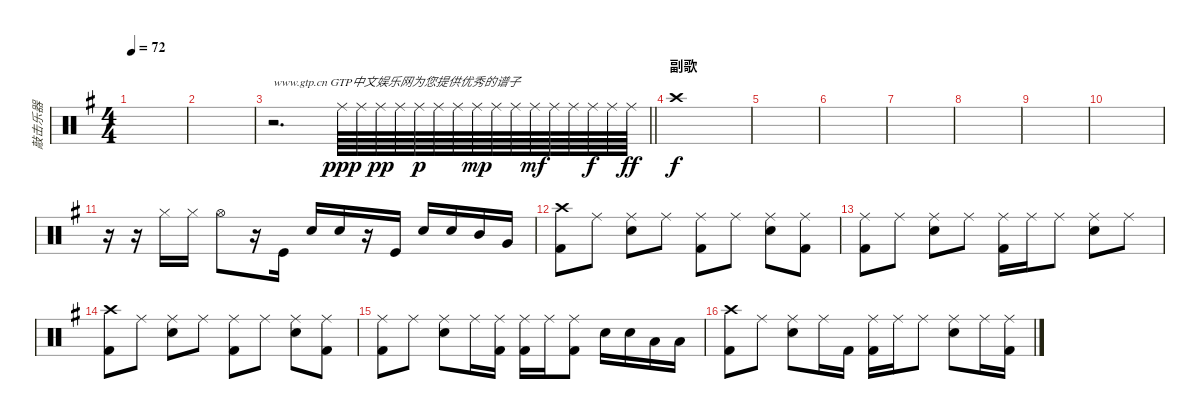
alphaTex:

\track ("敲击乐器" "敲击乐器") {instrument percussion}
\staff {score}
\articulation defaults
\ts (4 4)
\tempo 72
\clef neutral
\ks g
|
|
\barLineRight lightlight
r.2{d txt "www.gtp.cn GTP中文娱乐网为您提供优秀的谱子"} "Ride (middle)".64{dy ppp} "Ride (middle)".64 "Ride (middle)".64{dy pp} "Ride (middle)".64 "Ride (middle)".64{dy p} "Ride (middle)".64 "Ride (middle)".64 "Ride (middle)".64{dy mp} "Ride (middle)".64 "Ride (middle)".64 "Ride (middle)".64{dy mf} "Ride (middle)".64 "Ride (middle)".64 "Ride (middle)".64{dy f} "Ride (middle)".64 "Ride (middle)".64{dy ff} |
\section ("" "副歌")
"Crash high (hit)".1{dy f} |
|
|
|
|
|
|
r.16 r.16 "Hi-Hat (closed)".16 "Hi-Hat (closed)".16 "Hi-Hat (open)".8 r.16 "Kick (hit)".16 "Snare (hit) 2".16 "Snare (hit) 2".16 r.16 "Kick (hit)".16 "Snare (hit) 2".16 "Snare (hit) 2".16 "Mid Tom (hit)".16 "Very Low Tom (hit)".16 |
("Crash high (hit)" "Kick (hit) 2").8 "Ride (middle)".8 ("Ride (middle)" "Snare (hit) 2").8 "Ride (middle)".8 ("Ride (middle)" "Kick (hit) 2").8 "Ride (middle)".8 ("Ride (middle)" "Snare (hit) 2").8 ("Ride (middle)" "Kick (hit) 2").8 |
("Ride (middle)" "Kick (hit) 2").8 "Ride (middle)".8 ("Ride (middle)" "Snare (hit) 2").8 "Ride (middle)".8 ("Ride (middle)" "Kick (hit) 2").16 "Ride (middle)".16 "Ride (middle)".8 ("Ride (middle)" "Snare (hit) 2").8 "Ride (middle)".8 |
("Crash high (hit)" "Kick (hit) 2").8 "Ride (middle)".8 ("Ride (middle)" "Snare (hit) 2").8 "Ride (middle)".8 ("Ride (middle)" "Kick (hit) 2").8 "Ride (middle)".8 ("Ride (middle)" "Snare (hit) 2").8 ("Ride (middle)" "Kick (hit) 2").8 |
("Ride (middle)" "Kick (hit) 2").8 "Ride (middle)".8 ("Ride (middle)" "Snare (hit) 2").8 "Ride (middle)".16 ("Ride (middle)" "Kick (hit) 2").16 ("Ride (middle)" "Kick (hit) 2").16 "Ride (middle)".16 ("Ride (middle)" "Kick (hit) 2").8 "Snare (hit) 2".16 "Snare (hit) 2".16 "Low Tom (hit)".16 "Low Tom (hit)".16 |
("Crash high (hit)" "Kick (hit) 2").8 "Ride (middle)".8 ("Ride (middle)" "Snare (hit) 2").8 "Ride (middle)".16 "Kick (hit) 2".16 ("Ride (middle)" "Kick (hit) 2").16 "Ride (middle)".16 "Ride (middle)".8 ("Ride (middle)" "Snare (hit) 2").8 "Ride (middle)".16 ("Ride (middle)" "Kick (hit) 2").16
